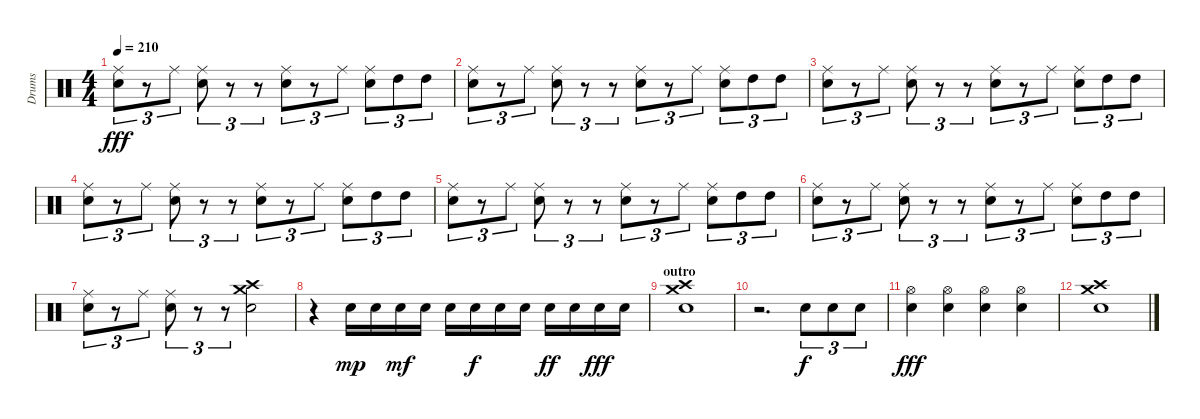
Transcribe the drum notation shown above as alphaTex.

\track ("Drums" "Drums") {instrument percussion}
\staff {score}
\articulation defaults
\ts (4 4)
\tempo 210
\clef neutral
\ks c
("Electric Snare (hit)" "Ride (middle)").8{tu (3 2) dy fff} r.8{tu (3 2)} "Ride (middle)".8{tu (3 2)} ("Electric Snare (hit)" "Ride (middle)").8{tu (3 2)} r.8{tu (3 2)} r.8{tu (3 2)} ("Electric Snare (hit)" "Ride (middle)").8{tu (3 2)} r.8{tu (3 2)} "Ride (middle)".8{tu (3 2)} ("Electric Snare (hit)" "Ride (middle)").8{tu (3 2)} "High Tom (hit)".8{tu (3 2)} "High Tom (hit)".8{tu (3 2)} |
("Electric Snare (hit)" "Ride (middle)").8{tu (3 2)} r.8{tu (3 2)} "Ride (middle)".8{tu (3 2)} ("Electric Snare (hit)" "Ride (middle)").8{tu (3 2)} r.8{tu (3 2)} r.8{tu (3 2)} ("Electric Snare (hit)" "Ride (middle)").8{tu (3 2)} r.8{tu (3 2)} "Ride (middle)".8{tu (3 2)} ("Electric Snare (hit)" "Ride (middle)").8{tu (3 2)} "High Tom (hit)".8{tu (3 2)} "High Tom (hit)".8{tu (3 2)} |
("Electric Snare (hit)" "Ride (middle)").8{tu (3 2)} r.8{tu (3 2)} "Ride (middle)".8{tu (3 2)} ("Electric Snare (hit)" "Ride (middle)").8{tu (3 2)} r.8{tu (3 2)} r.8{tu (3 2)} ("Electric Snare (hit)" "Ride (middle)").8{tu (3 2)} r.8{tu (3 2)} "Ride (middle)".8{tu (3 2)} ("Electric Snare (hit)" "Ride (middle)").8{tu (3 2)} "High Tom (hit)".8{tu (3 2)} "High Tom (hit)".8{tu (3 2)} |
("Electric Snare (hit)" "Ride (middle)").8{tu (3 2)} r.8{tu (3 2)} "Ride (middle)".8{tu (3 2)} ("Electric Snare (hit)" "Ride (middle)").8{tu (3 2)} r.8{tu (3 2)} r.8{tu (3 2)} ("Electric Snare (hit)" "Ride (middle)").8{tu (3 2)} r.8{tu (3 2)} "Ride (middle)".8{tu (3 2)} ("Electric Snare (hit)" "Ride (middle)").8{tu (3 2)} "High Tom (hit)".8{tu (3 2)} "High Tom (hit)".8{tu (3 2)} |
("Electric Snare (hit)" "Ride (middle)").8{tu (3 2)} r.8{tu (3 2)} "Ride (middle)".8{tu (3 2)} ("Electric Snare (hit)" "Ride (middle)").8{tu (3 2)} r.8{tu (3 2)} r.8{tu (3 2)} ("Electric Snare (hit)" "Ride (middle)").8{tu (3 2)} r.8{tu (3 2)} "Ride (middle)".8{tu (3 2)} ("Electric Snare (hit)" "Ride (middle)").8{tu (3 2)} "High Tom (hit)".8{tu (3 2)} "High Tom (hit)".8{tu (3 2)} |
("Electric Snare (hit)" "Ride (middle)").8{tu (3 2)} r.8{tu (3 2)} "Ride (middle)".8{tu (3 2)} ("Electric Snare (hit)" "Ride (middle)").8{tu (3 2)} r.8{tu (3 2)} r.8{tu (3 2)} ("Electric Snare (hit)" "Ride (middle)").8{tu (3 2)} r.8{tu (3 2)} "Ride (middle)".8{tu (3 2)} ("Electric Snare (hit)" "Ride (middle)").8{tu (3 2)} "High Tom (hit)".8{tu (3 2)} "High Tom (hit)".8{tu (3 2)} |
("Electric Snare (hit)" "Ride (middle)").8{tu (3 2)} r.8{tu (3 2)} "Ride (middle)".8{tu (3 2)} ("Electric Snare (hit)" "Ride (middle)").8{tu (3 2)} r.8{tu (3 2)} r.8{tu (3 2)} ("Crash medium (hit)" "Electric Snare (hit)" "Crash high (hit)").2 |
r.4 "Electric Snare (hit)".16{dy mp} "Electric Snare (hit)".16 "Electric Snare (hit)".16{dy mf} "Electric Snare (hit)".16 "Electric Snare (hit)".16 "Electric Snare (hit)".16{dy f} "Electric Snare (hit)".16 "Electric Snare (hit)".16 "Electric Snare (hit)".16{dy ff} "Electric Snare (hit)".16 "Electric Snare (hit)".16{dy fff} "Electric Snare (hit)".16 |
\section ("" "outro")
("Electric Snare (hit)" "Crash medium (hit)" "Crash high (hit)").1 |
r.2{d} "Electric Snare (hit)".8{tu (3 2) dy f} "Electric Snare (hit)".8{tu (3 2)} "Electric Snare (hit)".8{tu (3 2)} |
("Hi-Hat (open)" "Electric Snare (hit)").4{dy fff} ("Hi-Hat (open)" "Electric Snare (hit)").4 ("Hi-Hat (open)" "Electric Snare (hit)").4 ("Hi-Hat (open)" "Electric Snare (hit)").4 |
("Crash high (hit)" "Crash medium (hit)" "Electric Snare (hit)").1
